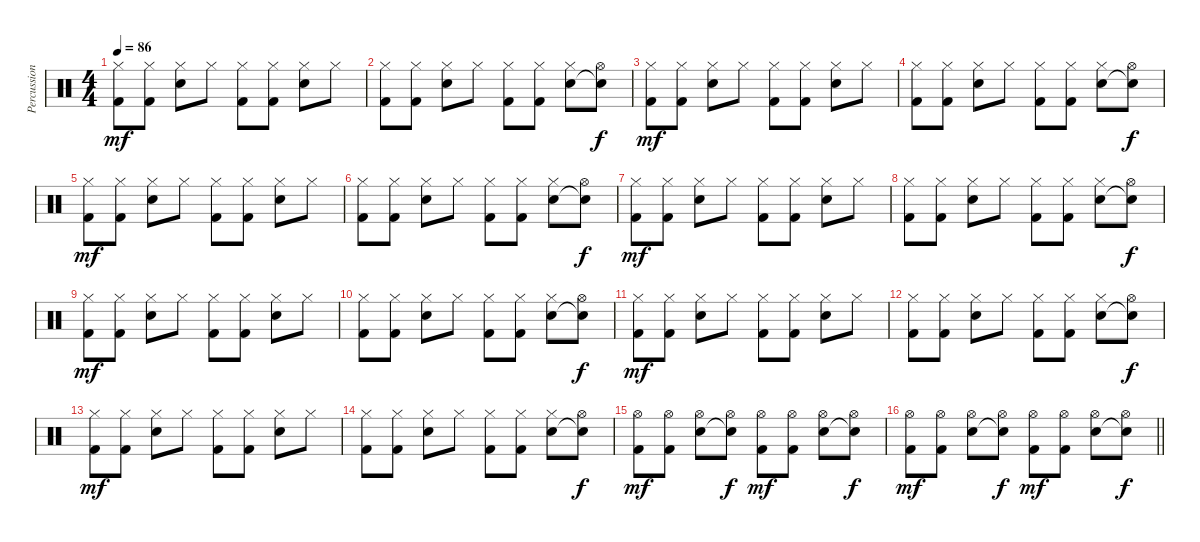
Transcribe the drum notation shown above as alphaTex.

\track ("Percussion" "Percussion") {instrument percussion}
\staff {score}
\articulation defaults
\ts (4 4)
\tempo 86
\clef neutral
\ks c
("Kick (hit) 2" "Hi-Hat (closed)").8{dy mf} ("Kick (hit) 2" "Hi-Hat (closed)").8 ("Snare (hit) 2" "Hi-Hat (closed)").8 "Hi-Hat (closed)".8 ("Kick (hit) 2" "Hi-Hat (closed)").8 ("Kick (hit) 2" "Hi-Hat (closed)").8 ("Snare (hit) 2" "Hi-Hat (closed)").8 "Hi-Hat (closed)".8 |
("Kick (hit) 2" "Hi-Hat (closed)").8 ("Kick (hit) 2" "Hi-Hat (closed)").8 ("Snare (hit) 2" "Hi-Hat (closed)").8 "Hi-Hat (closed)".8 ("Kick (hit) 2" "Hi-Hat (closed)").8 ("Kick (hit) 2" "Hi-Hat (closed)").8 ("Snare (hit) 2" "Hi-Hat (closed)").8 ("Snare (hit)"{t} "Hi-Hat (open)").8{dy f} |
("Kick (hit) 2" "Hi-Hat (closed)").8{dy mf} ("Kick (hit) 2" "Hi-Hat (closed)").8 ("Snare (hit) 2" "Hi-Hat (closed)").8 "Hi-Hat (closed)".8 ("Kick (hit) 2" "Hi-Hat (closed)").8 ("Kick (hit) 2" "Hi-Hat (closed)").8 ("Snare (hit) 2" "Hi-Hat (closed)").8 "Hi-Hat (closed)".8 |
("Kick (hit) 2" "Hi-Hat (closed)").8 ("Kick (hit) 2" "Hi-Hat (closed)").8 ("Snare (hit) 2" "Hi-Hat (closed)").8 "Hi-Hat (closed)".8 ("Kick (hit) 2" "Hi-Hat (closed)").8 ("Kick (hit) 2" "Hi-Hat (closed)").8 ("Snare (hit) 2" "Hi-Hat (closed)").8 ("Snare (hit)"{t} "Hi-Hat (open)").8{dy f} |
("Kick (hit) 2" "Hi-Hat (closed)").8{dy mf} ("Kick (hit) 2" "Hi-Hat (closed)").8 ("Snare (hit) 2" "Hi-Hat (closed)").8 "Hi-Hat (closed)".8 ("Kick (hit) 2" "Hi-Hat (closed)").8 ("Kick (hit) 2" "Hi-Hat (closed)").8 ("Snare (hit) 2" "Hi-Hat (closed)").8 "Hi-Hat (closed)".8 |
("Kick (hit) 2" "Hi-Hat (closed)").8 ("Kick (hit) 2" "Hi-Hat (closed)").8 ("Snare (hit) 2" "Hi-Hat (closed)").8 "Hi-Hat (closed)".8 ("Kick (hit) 2" "Hi-Hat (closed)").8 ("Kick (hit) 2" "Hi-Hat (closed)").8 ("Snare (hit) 2" "Hi-Hat (closed)").8 ("Snare (hit)"{t} "Hi-Hat (open)").8{dy f} |
("Kick (hit) 2" "Hi-Hat (closed)").8{dy mf} ("Kick (hit) 2" "Hi-Hat (closed)").8 ("Snare (hit) 2" "Hi-Hat (closed)").8 "Hi-Hat (closed)".8 ("Kick (hit) 2" "Hi-Hat (closed)").8 ("Kick (hit) 2" "Hi-Hat (closed)").8 ("Snare (hit) 2" "Hi-Hat (closed)").8 "Hi-Hat (closed)".8 |
("Kick (hit) 2" "Hi-Hat (closed)").8 ("Kick (hit) 2" "Hi-Hat (closed)").8 ("Snare (hit) 2" "Hi-Hat (closed)").8 "Hi-Hat (closed)".8 ("Kick (hit) 2" "Hi-Hat (closed)").8 ("Kick (hit) 2" "Hi-Hat (closed)").8 ("Snare (hit) 2" "Hi-Hat (closed)").8 ("Snare (hit)"{t} "Hi-Hat (open)").8{dy f} |
("Kick (hit) 2" "Hi-Hat (closed)").8{dy mf} ("Kick (hit) 2" "Hi-Hat (closed)").8 ("Snare (hit) 2" "Hi-Hat (closed)").8 "Hi-Hat (closed)".8 ("Kick (hit) 2" "Hi-Hat (closed)").8 ("Kick (hit) 2" "Hi-Hat (closed)").8 ("Snare (hit) 2" "Hi-Hat (closed)").8 "Hi-Hat (closed)".8 |
("Kick (hit) 2" "Hi-Hat (closed)").8 ("Kick (hit) 2" "Hi-Hat (closed)").8 ("Snare (hit) 2" "Hi-Hat (closed)").8 "Hi-Hat (closed)".8 ("Kick (hit) 2" "Hi-Hat (closed)").8 ("Kick (hit) 2" "Hi-Hat (closed)").8 ("Snare (hit) 2" "Hi-Hat (closed)").8 ("Snare (hit)"{t} "Hi-Hat (open)").8{dy f} |
("Kick (hit) 2" "Hi-Hat (closed)").8{dy mf} ("Kick (hit) 2" "Hi-Hat (closed)").8 ("Snare (hit) 2" "Hi-Hat (closed)").8 "Hi-Hat (closed)".8 ("Kick (hit) 2" "Hi-Hat (closed)").8 ("Kick (hit) 2" "Hi-Hat (closed)").8 ("Snare (hit) 2" "Hi-Hat (closed)").8 "Hi-Hat (closed)".8 |
("Kick (hit) 2" "Hi-Hat (closed)").8 ("Kick (hit) 2" "Hi-Hat (closed)").8 ("Snare (hit) 2" "Hi-Hat (closed)").8 "Hi-Hat (closed)".8 ("Kick (hit) 2" "Hi-Hat (closed)").8 ("Kick (hit) 2" "Hi-Hat (closed)").8 ("Snare (hit) 2" "Hi-Hat (closed)").8 ("Snare (hit)"{t} "Hi-Hat (open)").8{dy f} |
("Kick (hit) 2" "Hi-Hat (closed)").8{dy mf} ("Kick (hit) 2" "Hi-Hat (closed)").8 ("Snare (hit) 2" "Hi-Hat (closed)").8 "Hi-Hat (closed)".8 ("Kick (hit) 2" "Hi-Hat (closed)").8 ("Kick (hit) 2" "Hi-Hat (closed)").8 ("Snare (hit) 2" "Hi-Hat (closed)").8 "Hi-Hat (closed)".8 |
("Kick (hit) 2" "Hi-Hat (closed)").8 ("Kick (hit) 2" "Hi-Hat (closed)").8 ("Snare (hit) 2" "Hi-Hat (closed)").8 "Hi-Hat (closed)".8 ("Kick (hit) 2" "Hi-Hat (closed)").8 ("Kick (hit) 2" "Hi-Hat (closed)").8 ("Snare (hit) 2" "Hi-Hat (closed)").8 ("Snare (hit)"{t} "Hi-Hat (open)").8{dy f} |
("Kick (hit) 2" "Hi-Hat (open)").8{dy mf} ("Kick (hit) 2" "Hi-Hat (open)").8 ("Snare (hit) 2" "Hi-Hat (open)").8 ("Snare (hit)"{t} "Hi-Hat (open)").8{dy f} ("Kick (hit) 2" "Hi-Hat (open)").8{dy mf} ("Kick (hit) 2" "Hi-Hat (open)").8 ("Snare (hit) 2" "Hi-Hat (open)").8 ("Snare (hit)"{t} "Hi-Hat (open)").8{dy f} |
\barLineRight lightlight
("Kick (hit) 2" "Hi-Hat (open)").8{dy mf} ("Kick (hit) 2" "Hi-Hat (open)").8 ("Snare (hit) 2" "Hi-Hat (open)").8 ("Snare (hit)"{t} "Hi-Hat (open)").8{dy f} ("Kick (hit) 2" "Hi-Hat (open)").8{dy mf} ("Kick (hit) 2" "Hi-Hat (open)").8 ("Snare (hit) 2" "Hi-Hat (open)").8 ("Snare (hit)"{t} "Hi-Hat (open)").8{dy f}
